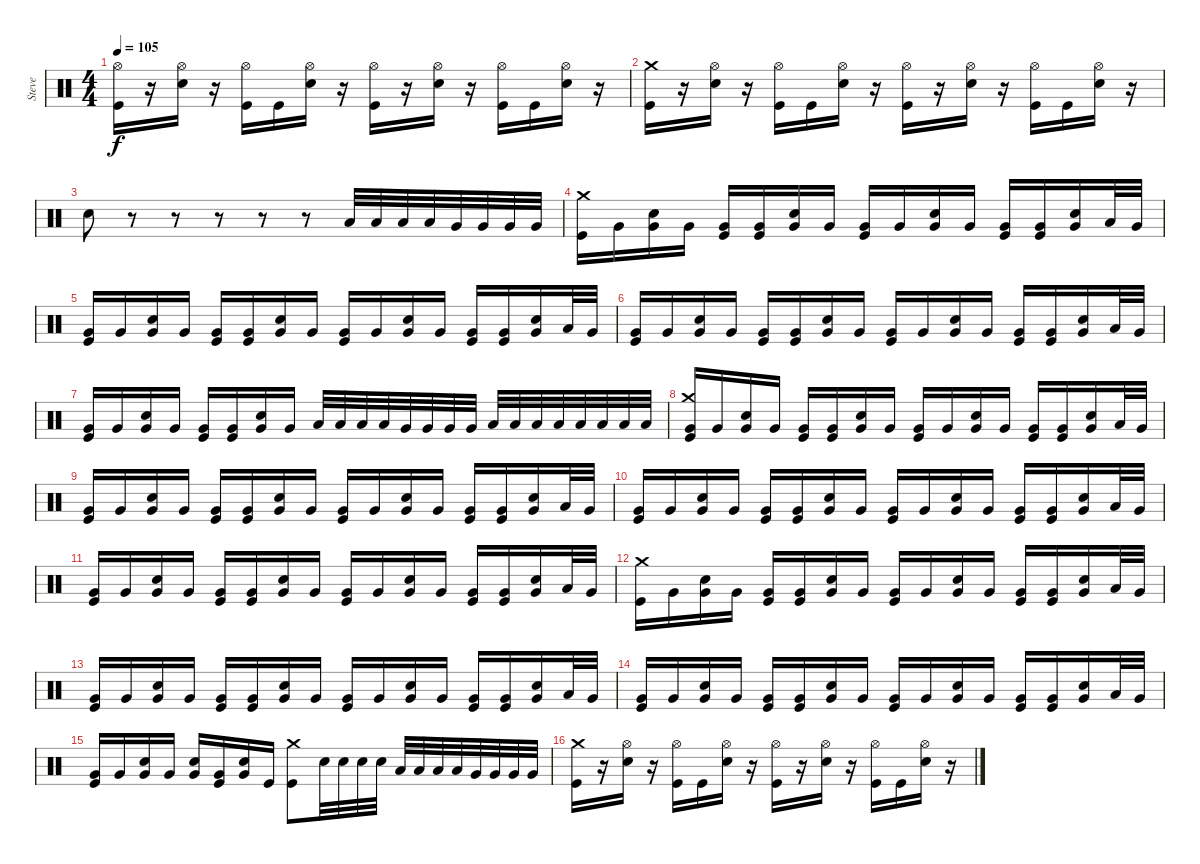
\track ("Steve" "Steve") {instrument percussion}
\staff {score}
\articulation defaults
\ts (4 4)
\tempo 105
\clef neutral
\ks c
("Hi-Hat (open)" "Kick (hit)").16{dy f} r.16 ("Hi-Hat (open)" "Electric Snare (hit)").16 r.16 ("Hi-Hat (open)" "Kick (hit)").16 "Kick (hit)".16 ("Hi-Hat (open)" "Electric Snare (hit)").16 r.16 ("Hi-Hat (open)" "Kick (hit)").16 r.16 ("Hi-Hat (open)" "Electric Snare (hit)").16 r.16 ("Hi-Hat (open)" "Kick (hit)").16 "Kick (hit)".16 ("Hi-Hat (open)" "Electric Snare (hit)").16 r.16 |
("Crash medium (hit)" "Kick (hit)").16 r.16 ("Hi-Hat (open)" "Electric Snare (hit)").16 r.16 ("Hi-Hat (open)" "Kick (hit)").16 "Kick (hit)".16 ("Hi-Hat (open)" "Electric Snare (hit)").16 r.16 ("Hi-Hat (open)" "Kick (hit)").16 r.16 ("Hi-Hat (open)" "Electric Snare (hit)").16 r.16 ("Hi-Hat (open)" "Kick (hit)").16 "Kick (hit)".16 ("Hi-Hat (open)" "Electric Snare (hit)").16 r.16 |
"Electric Snare (hit)".8 r.8 r.8 r.8 r.8 r.8 "Low Tom (hit)".32 "Low Tom (hit)".32 "Low Tom (hit)".32 "Low Tom (hit)".32 "Very Low Tom (hit)".32 "Very Low Tom (hit)".32 "Very Low Tom (hit)".32 "Very Low Tom (hit)".32 |
("Crash medium (hit)" "Kick (hit)").16 "Very Low Tom (hit)".16 ("Very Low Tom (hit)" "Electric Snare (hit)").16 "Very Low Tom (hit)".16 ("Very Low Tom (hit)" "Kick (hit)").16 ("Very Low Tom (hit)" "Kick (hit)").16 ("Very Low Tom (hit)" "Electric Snare (hit)").16 "Very Low Tom (hit)".16 ("Very Low Tom (hit)" "Kick (hit)").16 "Very Low Tom (hit)".16 ("Very Low Tom (hit)" "Electric Snare (hit)").16 "Very Low Tom (hit)".16 ("Very Low Tom (hit)" "Kick (hit)").16 ("Very Low Tom (hit)" "Kick (hit)").16 ("Very Low Tom (hit)" "Electric Snare (hit)").16 "Low Tom (hit)".32 "Very Low Tom (hit)".32 |
("Very Low Tom (hit)" "Kick (hit)").16 "Very Low Tom (hit)".16 ("Very Low Tom (hit)" "Electric Snare (hit)").16 "Very Low Tom (hit)".16 ("Very Low Tom (hit)" "Kick (hit)").16 ("Very Low Tom (hit)" "Kick (hit)").16 ("Very Low Tom (hit)" "Electric Snare (hit)").16 "Very Low Tom (hit)".16 ("Very Low Tom (hit)" "Kick (hit)").16 "Very Low Tom (hit)".16 ("Very Low Tom (hit)" "Electric Snare (hit)").16 "Very Low Tom (hit)".16 ("Very Low Tom (hit)" "Kick (hit)").16 ("Very Low Tom (hit)" "Kick (hit)").16 ("Very Low Tom (hit)" "Electric Snare (hit)").16 "Low Tom (hit)".32 "Very Low Tom (hit)".32 |
("Very Low Tom (hit)" "Kick (hit)").16 "Very Low Tom (hit)".16 ("Very Low Tom (hit)" "Electric Snare (hit)").16 "Very Low Tom (hit)".16 ("Very Low Tom (hit)" "Kick (hit)").16 ("Very Low Tom (hit)" "Kick (hit)").16 ("Very Low Tom (hit)" "Electric Snare (hit)").16 "Very Low Tom (hit)".16 ("Very Low Tom (hit)" "Kick (hit)").16 "Very Low Tom (hit)".16 ("Very Low Tom (hit)" "Electric Snare (hit)").16 "Very Low Tom (hit)".16 ("Very Low Tom (hit)" "Kick (hit)").16 ("Very Low Tom (hit)" "Kick (hit)").16 ("Very Low Tom (hit)" "Electric Snare (hit)").16 "Low Tom (hit)".32 "Very Low Tom (hit)".32 |
("Very Low Tom (hit)" "Kick (hit)").16 "Very Low Tom (hit)".16 ("Very Low Tom (hit)" "Electric Snare (hit)").16 "Very Low Tom (hit)".16 ("Very Low Tom (hit)" "Kick (hit)").16 ("Very Low Tom (hit)" "Kick (hit)").16 ("Very Low Tom (hit)" "Electric Snare (hit)").16 "Very Low Tom (hit)".16 "Low Tom (hit)".32 "Low Tom (hit)".32 "Low Tom (hit)".32 "Low Tom (hit)".32 "Very Low Tom (hit)".32 "Very Low Tom (hit)".32 "Very Low Tom (hit)".32 "Very Low Tom (hit)".32 "Low Floor Tom (hit)".32 "Low Floor Tom (hit)".32 "Low Floor Tom (hit)".32 "Low Floor Tom (hit)".32 "Low Floor Tom (hit)".32 "Low Floor Tom (hit)".32 "Low Floor Tom (hit)".32 "Low Floor Tom (hit)".32 |
("Crash medium (hit)" "Very Low Tom (hit)" "Kick (hit)").16 "Very Low Tom (hit)".16 ("Very Low Tom (hit)" "Electric Snare (hit)").16 "Very Low Tom (hit)".16 ("Very Low Tom (hit)" "Kick (hit)").16 ("Very Low Tom (hit)" "Kick (hit)").16 ("Very Low Tom (hit)" "Electric Snare (hit)").16 "Very Low Tom (hit)".16 ("Very Low Tom (hit)" "Kick (hit)").16 "Very Low Tom (hit)".16 ("Very Low Tom (hit)" "Electric Snare (hit)").16 "Very Low Tom (hit)".16 ("Very Low Tom (hit)" "Kick (hit)").16 ("Very Low Tom (hit)" "Kick (hit)").16 ("Very Low Tom (hit)" "Electric Snare (hit)").16 "Low Tom (hit)".32 "Very Low Tom (hit)".32 |
("Very Low Tom (hit)" "Kick (hit)").16 "Very Low Tom (hit)".16 ("Very Low Tom (hit)" "Electric Snare (hit)").16 "Very Low Tom (hit)".16 ("Very Low Tom (hit)" "Kick (hit)").16 ("Very Low Tom (hit)" "Kick (hit)").16 ("Very Low Tom (hit)" "Electric Snare (hit)").16 "Very Low Tom (hit)".16 ("Very Low Tom (hit)" "Kick (hit)").16 "Very Low Tom (hit)".16 ("Very Low Tom (hit)" "Electric Snare (hit)").16 "Very Low Tom (hit)".16 ("Very Low Tom (hit)" "Kick (hit)").16 ("Very Low Tom (hit)" "Kick (hit)").16 ("Very Low Tom (hit)" "Electric Snare (hit)").16 "Low Tom (hit)".32 "Very Low Tom (hit)".32 |
("Very Low Tom (hit)" "Kick (hit)").16 "Very Low Tom (hit)".16 ("Very Low Tom (hit)" "Electric Snare (hit)").16 "Very Low Tom (hit)".16 ("Very Low Tom (hit)" "Kick (hit)").16 ("Very Low Tom (hit)" "Kick (hit)").16 ("Very Low Tom (hit)" "Electric Snare (hit)").16 "Very Low Tom (hit)".16 ("Very Low Tom (hit)" "Kick (hit)").16 "Very Low Tom (hit)".16 ("Very Low Tom (hit)" "Electric Snare (hit)").16 "Very Low Tom (hit)".16 ("Very Low Tom (hit)" "Kick (hit)").16 ("Very Low Tom (hit)" "Kick (hit)").16 ("Very Low Tom (hit)" "Electric Snare (hit)").16 "Low Tom (hit)".32 "Very Low Tom (hit)".32 |
("Very Low Tom (hit)" "Kick (hit)").16 "Very Low Tom (hit)".16 ("Very Low Tom (hit)" "Electric Snare (hit)").16 "Very Low Tom (hit)".16 ("Very Low Tom (hit)" "Kick (hit)").16 ("Very Low Tom (hit)" "Kick (hit)").16 ("Very Low Tom (hit)" "Electric Snare (hit)").16 "Very Low Tom (hit)".16 ("Very Low Tom (hit)" "Kick (hit)").16 "Very Low Tom (hit)".16 ("Very Low Tom (hit)" "Electric Snare (hit)").16 "Very Low Tom (hit)".16 ("Very Low Tom (hit)" "Kick (hit)").16 ("Very Low Tom (hit)" "Kick (hit)").16 ("Very Low Tom (hit)" "Electric Snare (hit)").16 "Low Tom (hit)".32 "Very Low Tom (hit)".32 |
("Crash medium (hit)" "Kick (hit)").16 "Very Low Tom (hit)".16 ("Very Low Tom (hit)" "Electric Snare (hit)").16 "Very Low Tom (hit)".16 ("Very Low Tom (hit)" "Kick (hit)").16 ("Very Low Tom (hit)" "Kick (hit)").16 ("Very Low Tom (hit)" "Electric Snare (hit)").16 "Very Low Tom (hit)".16 ("Very Low Tom (hit)" "Kick (hit)").16 "Very Low Tom (hit)".16 ("Very Low Tom (hit)" "Electric Snare (hit)").16 "Very Low Tom (hit)".16 ("Very Low Tom (hit)" "Kick (hit)").16 ("Very Low Tom (hit)" "Kick (hit)").16 ("Very Low Tom (hit)" "Electric Snare (hit)").16 "Low Tom (hit)".32 "Very Low Tom (hit)".32 |
("Very Low Tom (hit)" "Kick (hit)").16 "Very Low Tom (hit)".16 ("Very Low Tom (hit)" "Electric Snare (hit)").16 "Very Low Tom (hit)".16 ("Very Low Tom (hit)" "Kick (hit)").16 ("Very Low Tom (hit)" "Kick (hit)").16 ("Very Low Tom (hit)" "Electric Snare (hit)").16 "Very Low Tom (hit)".16 ("Very Low Tom (hit)" "Kick (hit)").16 "Very Low Tom (hit)".16 ("Very Low Tom (hit)" "Electric Snare (hit)").16 "Very Low Tom (hit)".16 ("Very Low Tom (hit)" "Kick (hit)").16 ("Very Low Tom (hit)" "Kick (hit)").16 ("Very Low Tom (hit)" "Electric Snare (hit)").16 "Low Tom (hit)".32 "Very Low Tom (hit)".32 |
("Very Low Tom (hit)" "Kick (hit)").16 "Very Low Tom (hit)".16 ("Very Low Tom (hit)" "Electric Snare (hit)").16 "Very Low Tom (hit)".16 ("Very Low Tom (hit)" "Kick (hit)").16 ("Very Low Tom (hit)" "Kick (hit)").16 ("Very Low Tom (hit)" "Electric Snare (hit)").16 "Very Low Tom (hit)".16 ("Very Low Tom (hit)" "Kick (hit)").16 "Very Low Tom (hit)".16 ("Very Low Tom (hit)" "Electric Snare (hit)").16 "Very Low Tom (hit)".16 ("Very Low Tom (hit)" "Kick (hit)").16 ("Very Low Tom (hit)" "Kick (hit)").16 ("Very Low Tom (hit)" "Electric Snare (hit)").16 "Low Tom (hit)".32 "Very Low Tom (hit)".32 |
("Very Low Tom (hit)" "Kick (hit)").16 "Very Low Tom (hit)".16 ("Very Low Tom (hit)" "Electric Snare (hit)").16 "Very Low Tom (hit)".16 ("Very Low Tom (hit)" "Electric Snare (hit)").16 ("Very Low Tom (hit)" "Kick (hit)").16 ("Very Low Tom (hit)" "Electric Snare (hit)").16 "Kick (hit)".16 ("Crash medium (hit)" "Kick (hit)").8 "Electric Snare (hit)".32 "Electric Snare (hit)".32 "Electric Snare (hit)".32 "Electric Snare (hit)".32 "Low Tom (hit)".32 "Low Tom (hit)".32 "Low Tom (hit)".32 "Low Tom (hit)".32 "Very Low Tom (hit)".32 "Very Low Tom (hit)".32 "Very Low Tom (hit)".32 "Very Low Tom (hit)".32 |
("Crash medium (hit)" "Kick (hit)").16 r.16 ("Hi-Hat (open)" "Electric Snare (hit)").16 r.16 ("Hi-Hat (open)" "Kick (hit)").16 "Kick (hit)".16 ("Hi-Hat (open)" "Electric Snare (hit)").16 r.16 ("Hi-Hat (open)" "Kick (hit)").16 r.16 ("Hi-Hat (open)" "Electric Snare (hit)").16 r.16 ("Hi-Hat (open)" "Kick (hit)").16 "Kick (hit)".16 ("Hi-Hat (open)" "Electric Snare (hit)").16 r.16
